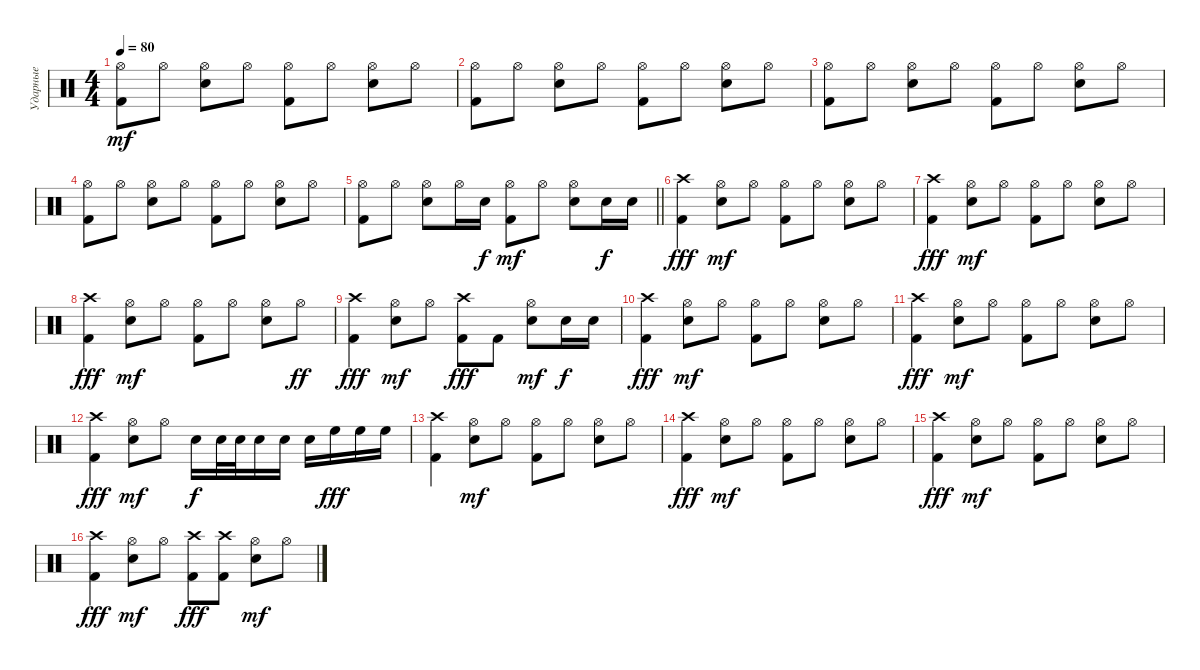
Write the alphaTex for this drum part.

\track ("Ударные" "Ударные") {instrument percussion}
\staff {score}
\articulation defaults
\ts (4 4)
\tempo 80
\clef neutral
\ks c
("Kick (hit) 2" "Hi-Hat (open)").8{dy mf} "Hi-Hat (open)".8 ("Snare (hit) 2" "Hi-Hat (open)").8 "Hi-Hat (open)".8 ("Kick (hit) 2" "Hi-Hat (open)").8 "Hi-Hat (open)".8 ("Snare (hit) 2" "Hi-Hat (open)").8 "Hi-Hat (open)".8 |
("Kick (hit) 2" "Hi-Hat (open)").8 "Hi-Hat (open)".8 ("Snare (hit) 2" "Hi-Hat (open)").8 "Hi-Hat (open)".8 ("Kick (hit) 2" "Hi-Hat (open)").8 "Hi-Hat (open)".8 ("Snare (hit) 2" "Hi-Hat (open)").8 "Hi-Hat (open)".8 |
("Kick (hit) 2" "Hi-Hat (open)").8 "Hi-Hat (open)".8 ("Snare (hit) 2" "Hi-Hat (open)").8 "Hi-Hat (open)".8 ("Kick (hit) 2" "Hi-Hat (open)").8 "Hi-Hat (open)".8 ("Snare (hit) 2" "Hi-Hat (open)").8 "Hi-Hat (open)".8 |
("Kick (hit) 2" "Hi-Hat (open)").8 "Hi-Hat (open)".8 ("Snare (hit) 2" "Hi-Hat (open)").8 "Hi-Hat (open)".8 ("Kick (hit) 2" "Hi-Hat (open)").8 "Hi-Hat (open)".8 ("Snare (hit) 2" "Hi-Hat (open)").8 "Hi-Hat (open)".8 |
\barLineRight lightlight
("Kick (hit) 2" "Hi-Hat (open)").8 "Hi-Hat (open)".8 ("Snare (hit) 2" "Hi-Hat (open)").8 "Hi-Hat (open)".16 "Snare (hit) 2".16{dy f} ("Kick (hit) 2" "Hi-Hat (open)").8{dy mf} "Hi-Hat (open)".8 ("Snare (hit) 2" "Hi-Hat (open)").8 "Snare (hit) 2".16{dy f} "Snare (hit) 2".16 |
("Kick (hit) 2" "Crash high (hit)").4{dy fff} ("Snare (hit) 2" "Hi-Hat (open)").8{dy mf} "Hi-Hat (open)".8 ("Kick (hit) 2" "Hi-Hat (open)").8 "Hi-Hat (open)".8 ("Snare (hit) 2" "Hi-Hat (open)").8 "Hi-Hat (open)".8 |
("Kick (hit) 2" "Crash high (hit)").4{dy fff} ("Snare (hit) 2" "Hi-Hat (open)").8{dy mf} "Hi-Hat (open)".8 ("Kick (hit) 2" "Hi-Hat (open)").8 "Hi-Hat (open)".8 ("Snare (hit) 2" "Hi-Hat (open)").8 "Hi-Hat (open)".8 |
("Kick (hit) 2" "Crash high (hit)").4{dy fff} ("Snare (hit) 2" "Hi-Hat (open)").8{dy mf} "Hi-Hat (open)".8 ("Kick (hit) 2" "Hi-Hat (open)").8 "Hi-Hat (open)".8 ("Snare (hit) 2" "Hi-Hat (open)").8 "Hi-Hat (open)".8{dy ff} |
("Kick (hit) 2" "Crash high (hit)").4{dy fff} ("Snare (hit) 2" "Hi-Hat (open)").8{dy mf} "Hi-Hat (open)".8 ("Kick (hit) 2" "Crash high (hit)").8{dy fff} "Kick (hit) 2".8 ("Snare (hit) 2" "Hi-Hat (open)").8{dy mf} "Snare (hit) 2".16{dy f} "Snare (hit) 2".16 |
("Kick (hit) 2" "Crash high (hit)").4{dy fff} ("Snare (hit) 2" "Hi-Hat (open)").8{dy mf} "Hi-Hat (open)".8 ("Kick (hit) 2" "Hi-Hat (open)").8 "Hi-Hat (open)".8 ("Snare (hit) 2" "Hi-Hat (open)").8 "Hi-Hat (open)".8 |
("Kick (hit) 2" "Crash high (hit)").4{dy fff} ("Snare (hit) 2" "Hi-Hat (open)").8{dy mf} "Hi-Hat (open)".8 ("Kick (hit) 2" "Hi-Hat (open)").8 "Hi-Hat (open)".8 ("Snare (hit) 2" "Hi-Hat (open)").8 "Hi-Hat (open)".8 |
("Kick (hit) 2" "Crash high (hit)").4{dy fff} ("Snare (hit) 2" "Hi-Hat (open)").8{dy mf} "Hi-Hat (open)".8 "Snare (hit) 2".16{dy f} "Snare (hit) 2".32 "Snare (hit) 2".32 "Snare (hit) 2".16 "Snare (hit) 2".16 "Snare (hit) 2".16 "High Floor Tom (hit)".16{dy fff} "High Floor Tom (hit)".16 "High Floor Tom (hit)".16 |
("Kick (hit) 2" "Crash high (hit)").4 ("Snare (hit) 2" "Hi-Hat (open)").8{dy mf} "Hi-Hat (open)".8 ("Kick (hit) 2" "Hi-Hat (open)").8 "Hi-Hat (open)".8 ("Snare (hit) 2" "Hi-Hat (open)").8 "Hi-Hat (open)".8 |
("Kick (hit) 2" "Crash high (hit)").4{dy fff} ("Snare (hit) 2" "Hi-Hat (open)").8{dy mf} "Hi-Hat (open)".8 ("Kick (hit) 2" "Hi-Hat (open)").8 "Hi-Hat (open)".8 ("Snare (hit) 2" "Hi-Hat (open)").8 "Hi-Hat (open)".8 |
("Kick (hit) 2" "Crash high (hit)").4{dy fff} ("Snare (hit) 2" "Hi-Hat (open)").8{dy mf} "Hi-Hat (open)".8 ("Kick (hit) 2" "Hi-Hat (open)").8 "Hi-Hat (open)".8 ("Snare (hit) 2" "Hi-Hat (open)").8 "Hi-Hat (open)".8 |
("Kick (hit) 2" "Crash high (hit)").4{dy fff} ("Snare (hit) 2" "Hi-Hat (open)").8{dy mf} "Hi-Hat (open)".8 ("Kick (hit) 2" "Crash high (hit)").8{dy fff} ("Kick (hit) 2" "Crash high (hit)").8 ("Snare (hit) 2" "Hi-Hat (open)").8{dy mf} "Hi-Hat (open)".8
